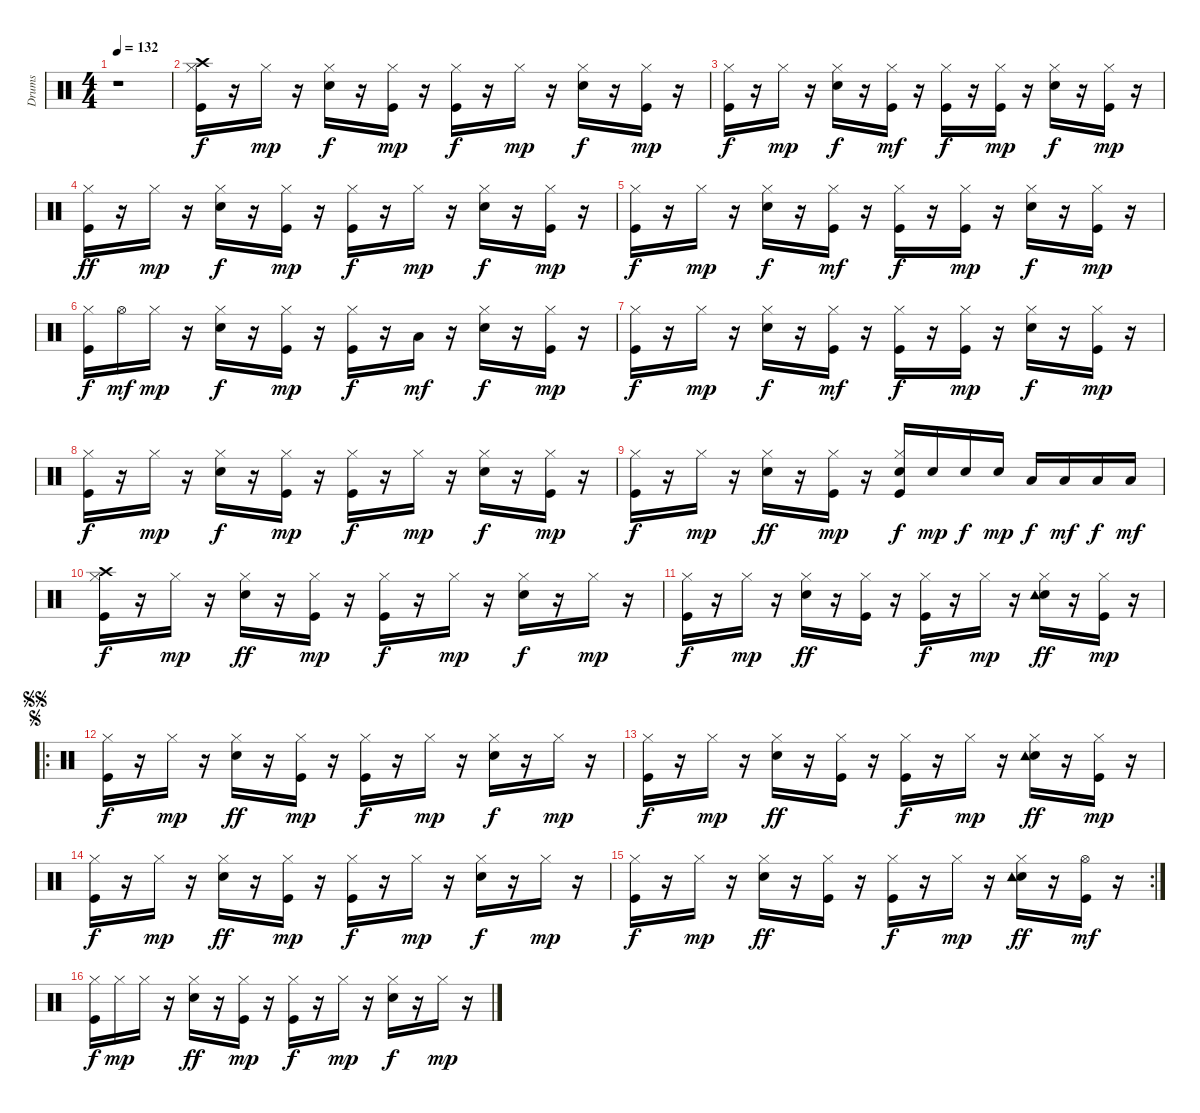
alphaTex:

\track ("Drums" "Drums") {instrument percussion}
\staff {score}
\articulation defaults
\ts (4 4)
\tempo 132
\clef neutral
\ks c
r.1{dy f} |
("Kick (hit)" "Hi-Hat (closed)" "Crash high (hit)").16 r.16 "Hi-Hat (closed)".16{dy mp} r.16 ("Snare (hit) 2" "Hi-Hat (closed)").16{dy f} r.16 ("Kick (hit)" "Hi-Hat (closed)").16{dy mp} r.16 ("Kick (hit)" "Hi-Hat (closed)").16{dy f} r.16 "Hi-Hat (closed)".16{dy mp} r.16 ("Snare (hit) 2" "Hi-Hat (closed)").16{dy f} r.16 ("Kick (hit)" "Hi-Hat (closed)").16{dy mp} r.16 |
("Kick (hit)" "Hi-Hat (closed)").16{dy f} r.16 "Hi-Hat (closed)".16{dy mp} r.16 ("Snare (hit) 2" "Hi-Hat (closed)").16{dy f} r.16 ("Kick (hit)" "Hi-Hat (closed)").16{dy mf} r.16 ("Kick (hit)" "Hi-Hat (closed)").16{dy f} r.16 ("Kick (hit)" "Hi-Hat (closed)").16{dy mp} r.16 ("Snare (hit) 2" "Hi-Hat (closed)").16{dy f} r.16 ("Kick (hit)" "Hi-Hat (closed)").16{dy mp} r.16 |
("Kick (hit)" "Hi-Hat (closed)").16{dy ff} r.16 "Hi-Hat (closed)".16{dy mp} r.16 ("Snare (hit) 2" "Hi-Hat (closed)").16{dy f} r.16 ("Kick (hit)" "Hi-Hat (closed)").16{dy mp} r.16 ("Kick (hit)" "Hi-Hat (closed)").16{dy f} r.16 "Hi-Hat (closed)".16{dy mp} r.16 ("Snare (hit) 2" "Hi-Hat (closed)").16{dy f} r.16 ("Kick (hit)" "Hi-Hat (closed)").16{dy mp} r.16 |
("Kick (hit)" "Hi-Hat (closed)").16{dy f} r.16 "Hi-Hat (closed)".16{dy mp} r.16 ("Snare (hit) 2" "Hi-Hat (closed)").16{dy f} r.16 ("Kick (hit)" "Hi-Hat (closed)").16{dy mf} r.16 ("Kick (hit)" "Hi-Hat (closed)").16{dy f} r.16 ("Kick (hit)" "Hi-Hat (closed)").16{dy mp} r.16 ("Snare (hit) 2" "Hi-Hat (closed)").16{dy f} r.16 ("Kick (hit)" "Hi-Hat (closed)").16{dy mp} r.16 |
("Kick (hit)" "Hi-Hat (closed)").16{dy f} "Hi-Hat (open)".16{dy mf} "Hi-Hat (closed)".16{dy mp} r.16 ("Snare (hit) 2" "Hi-Hat (closed)").16{dy f} r.16 ("Kick (hit)" "Hi-Hat (closed)").16{dy mp} r.16 ("Kick (hit)" "Hi-Hat (closed)").16{dy f} r.16 "Low Floor Tom (hit)".16{dy mf} r.16 ("Snare (hit) 2" "Hi-Hat (closed)").16{dy f} r.16 ("Kick (hit)" "Hi-Hat (closed)").16{dy mp} r.16 |
("Kick (hit)" "Hi-Hat (closed)").16{dy f} r.16 "Hi-Hat (closed)".16{dy mp} r.16 ("Snare (hit) 2" "Hi-Hat (closed)").16{dy f} r.16 ("Kick (hit)" "Hi-Hat (closed)").16{dy mf} r.16 ("Kick (hit)" "Hi-Hat (closed)").16{dy f} r.16 ("Kick (hit)" "Hi-Hat (closed)").16{dy mp} r.16 ("Snare (hit) 2" "Hi-Hat (closed)").16{dy f} r.16 ("Kick (hit)" "Hi-Hat (closed)").16{dy mp} r.16 |
("Kick (hit)" "Hi-Hat (closed)").16{dy f} r.16 "Hi-Hat (closed)".16{dy mp} r.16 ("Snare (hit) 2" "Hi-Hat (closed)").16{dy f} r.16 ("Kick (hit)" "Hi-Hat (closed)").16{dy mp} r.16 ("Kick (hit)" "Hi-Hat (closed)").16{dy f} r.16 "Hi-Hat (closed)".16{dy mp} r.16 ("Snare (hit) 2" "Hi-Hat (closed)").16{dy f} r.16 ("Kick (hit)" "Hi-Hat (closed)").16{dy mp} r.16 |
("Kick (hit)" "Hi-Hat (closed)").16{dy f} r.16 "Hi-Hat (closed)".16{dy mp} r.16 ("Snare (hit) 2" "Hi-Hat (closed)").16{dy ff} r.16 ("Kick (hit)" "Hi-Hat (closed)").16{dy mp} r.16 ("Kick (hit)" "Snare (hit) 2" "Hi-Hat (closed)").16{dy f} "Snare (hit) 2".16{dy mp} "Snare (hit) 2".16{dy f} "Snare (hit) 2".16{dy mp} "Low Tom (hit)".16{dy f} "Low Tom (hit)".16{dy mf} "Low Tom (hit)".16{dy f} "Low Tom (hit)".16{dy mf} |
("Kick (hit)" "Hi-Hat (closed)" "Crash high (hit)").16{dy f} r.16 "Hi-Hat (closed)".16{dy mp} r.16 ("Snare (hit) 2" "Hi-Hat (closed)").16{dy ff} r.16 ("Kick (hit)" "Hi-Hat (closed)").16{dy mp} r.16 ("Kick (hit)" "Hi-Hat (closed)").16{dy f} r.16 "Hi-Hat (closed)".16{dy mp} r.16 ("Snare (hit) 2" "Hi-Hat (closed)").16{dy f} r.16 "Hi-Hat (closed)".16{dy mp} r.16 |
("Kick (hit)" "Hi-Hat (closed)").16{dy f} r.16 "Hi-Hat (closed)".16{dy mp} r.16 ("Snare (hit) 2" "Hi-Hat (closed)").16{dy ff} r.16 ("Kick (hit)" "Hi-Hat (closed)").16 r.16 ("Kick (hit)" "Hi-Hat (closed)").16{dy f} r.16 "Hi-Hat (closed)".16{dy mp} r.16 ("Snare (hit) 2" "Hi-Hat (closed)" "Tambourine (hit)").16{dy ff} r.16 ("Kick (hit)" "Hi-Hat (closed)").16{dy mp} r.16 |
\ro
\jump segno
\jump segnosegno
("Kick (hit)" "Hi-Hat (closed)").16{dy f} r.16 "Hi-Hat (closed)".16{dy mp} r.16 ("Snare (hit) 2" "Hi-Hat (closed)").16{dy ff} r.16 ("Kick (hit)" "Hi-Hat (closed)").16{dy mp} r.16 ("Kick (hit)" "Hi-Hat (closed)").16{dy f} r.16 "Hi-Hat (closed)".16{dy mp} r.16 ("Snare (hit) 2" "Hi-Hat (closed)").16{dy f} r.16 "Hi-Hat (closed)".16{dy mp} r.16 |
("Kick (hit)" "Hi-Hat (closed)").16{dy f} r.16 "Hi-Hat (closed)".16{dy mp} r.16 ("Snare (hit) 2" "Hi-Hat (closed)").16{dy ff} r.16 ("Kick (hit)" "Hi-Hat (closed)").16 r.16 ("Kick (hit)" "Hi-Hat (closed)").16{dy f} r.16 "Hi-Hat (closed)".16{dy mp} r.16 ("Snare (hit) 2" "Hi-Hat (closed)" "Tambourine (hit)").16{dy ff} r.16 ("Kick (hit)" "Hi-Hat (closed)").16{dy mp} r.16 |
("Kick (hit)" "Hi-Hat (closed)").16{dy f} r.16 "Hi-Hat (closed)".16{dy mp} r.16 ("Snare (hit) 2" "Hi-Hat (closed)").16{dy ff} r.16 ("Kick (hit)" "Hi-Hat (closed)").16{dy mp} r.16 ("Kick (hit)" "Hi-Hat (closed)").16{dy f} r.16 "Hi-Hat (closed)".16{dy mp} r.16 ("Snare (hit) 2" "Hi-Hat (closed)").16{dy f} r.16 "Hi-Hat (closed)".16{dy mp} r.16 |
\rc 2
("Kick (hit)" "Hi-Hat (closed)").16{dy f} r.16 "Hi-Hat (closed)".16{dy mp} r.16 ("Snare (hit) 2" "Hi-Hat (closed)").16{dy ff} r.16 ("Kick (hit)" "Hi-Hat (closed)").16 r.16 ("Kick (hit)" "Hi-Hat (closed)").16{dy f} r.16 "Hi-Hat (closed)".16{dy mp} r.16 ("Snare (hit) 2" "Hi-Hat (closed)" "Tambourine (hit)").16{dy ff} r.16 ("Kick (hit)" "Hi-Hat (open)").16{dy mf} r.16 |
("Kick (hit)" "Hi-Hat (closed)").16{dy f} "Hi-Hat (closed)".16{dy mp} "Hi-Hat (closed)".16 r.16 ("Snare (hit) 2" "Hi-Hat (closed)").16{dy ff} r.16 ("Kick (hit)" "Hi-Hat (closed)").16{dy mp} r.16 ("Kick (hit)" "Hi-Hat (closed)").16{dy f} r.16 "Hi-Hat (closed)".16{dy mp} r.16 ("Snare (hit) 2" "Hi-Hat (closed)").16{dy f} r.16 "Hi-Hat (closed)".16{dy mp} r.16
